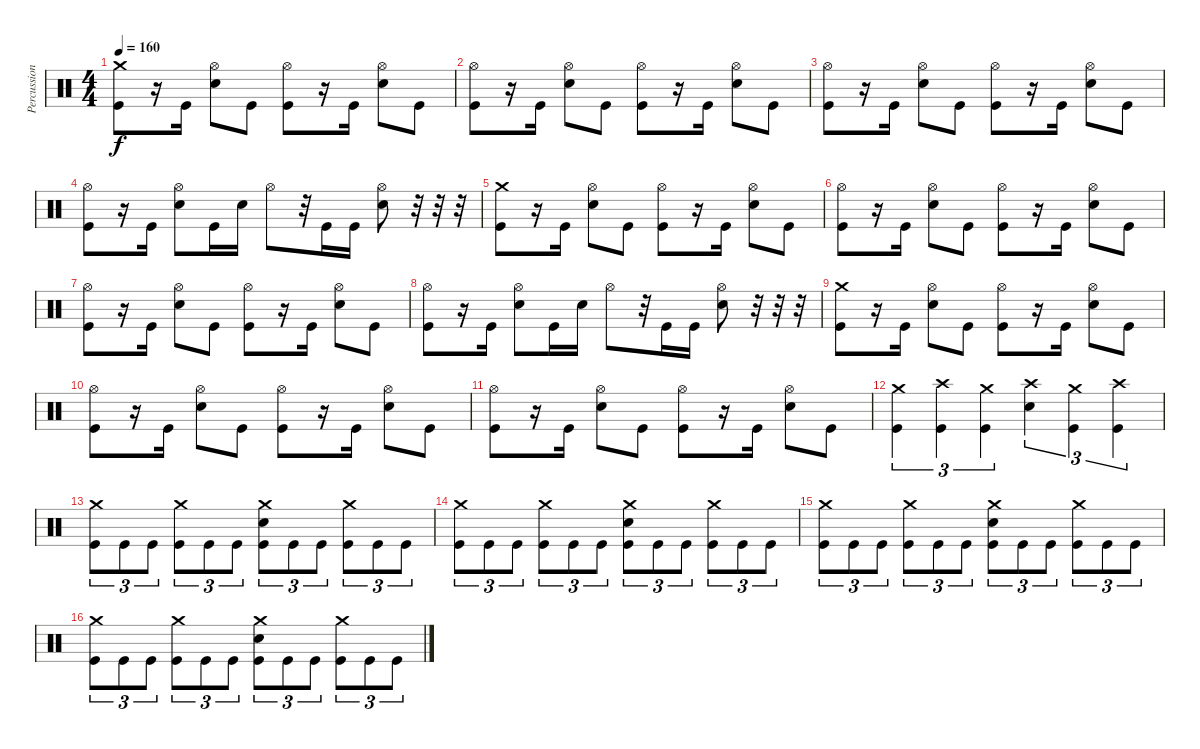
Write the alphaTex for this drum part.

\track ("Percussion" "Percussion") {instrument percussion}
\staff {score}
\articulation defaults
\ts (4 4)
\tempo 160
\clef neutral
\ks c
("Crash medium (hit)" "Kick (hit)").8{dy f} r.16 "Kick (hit)".16 ("Hi-Hat (open)" "Electric Snare (hit)").8 "Kick (hit)".8 ("Hi-Hat (open)" "Kick (hit)").8 r.16 "Kick (hit)".16 ("Hi-Hat (open)" "Electric Snare (hit)").8 "Kick (hit)".8 |
("Hi-Hat (open)" "Kick (hit)").8 r.16 "Kick (hit)".16 ("Hi-Hat (open)" "Electric Snare (hit)").8 "Kick (hit)".8 ("Hi-Hat (open)" "Kick (hit)").8 r.16 "Kick (hit)".16 ("Hi-Hat (open)" "Electric Snare (hit)").8 "Kick (hit)".8 |
("Hi-Hat (open)" "Kick (hit)").8 r.16 "Kick (hit)".16 ("Hi-Hat (open)" "Electric Snare (hit)").8 "Kick (hit)".8 ("Hi-Hat (open)" "Kick (hit)").8 r.16 "Kick (hit)".16 ("Hi-Hat (open)" "Electric Snare (hit)").8 "Kick (hit)".8 |
("Hi-Hat (open)" "Kick (hit)").8 r.16 "Kick (hit)".16 ("Hi-Hat (open)" "Electric Snare (hit)").8 "Kick (hit)".16 "Electric Snare (hit)".16 "Hi-Hat (open)".8 r.32 "Kick (hit)".16 "Kick (hit)".16 ("Hi-Hat (open)" "Electric Snare (hit)").8 r.32 r.32 r.32 |
("Crash medium (hit)" "Kick (hit)").8 r.16 "Kick (hit)".16 ("Hi-Hat (open)" "Electric Snare (hit)").8 "Kick (hit)".8 ("Hi-Hat (open)" "Kick (hit)").8 r.16 "Kick (hit)".16 ("Hi-Hat (open)" "Electric Snare (hit)").8 "Kick (hit)".8 |
("Hi-Hat (open)" "Kick (hit)").8 r.16 "Kick (hit)".16 ("Hi-Hat (open)" "Electric Snare (hit)").8 "Kick (hit)".8 ("Hi-Hat (open)" "Kick (hit)").8 r.16 "Kick (hit)".16 ("Hi-Hat (open)" "Electric Snare (hit)").8 "Kick (hit)".8 |
("Hi-Hat (open)" "Kick (hit)").8 r.16 "Kick (hit)".16 ("Hi-Hat (open)" "Electric Snare (hit)").8 "Kick (hit)".8 ("Hi-Hat (open)" "Kick (hit)").8 r.16 "Kick (hit)".16 ("Hi-Hat (open)" "Electric Snare (hit)").8 "Kick (hit)".8 |
("Hi-Hat (open)" "Kick (hit)").8 r.16 "Kick (hit)".16 ("Hi-Hat (open)" "Electric Snare (hit)").8 "Kick (hit)".16 "Electric Snare (hit)".16 "Hi-Hat (open)".8 r.32 "Kick (hit)".16 "Kick (hit)".16 ("Hi-Hat (open)" "Electric Snare (hit)").8 r.32 r.32 r.32 |
("Crash medium (hit)" "Kick (hit)").8 r.16 "Kick (hit)".16 ("Hi-Hat (open)" "Electric Snare (hit)").8 "Kick (hit)".8 ("Hi-Hat (open)" "Kick (hit)").8 r.16 "Kick (hit)".16 ("Hi-Hat (open)" "Electric Snare (hit)").8 "Kick (hit)".8 |
("Hi-Hat (open)" "Kick (hit)").8 r.16 "Kick (hit)".16 ("Hi-Hat (open)" "Electric Snare (hit)").8 "Kick (hit)".8 ("Hi-Hat (open)" "Kick (hit)").8 r.16 "Kick (hit)".16 ("Hi-Hat (open)" "Electric Snare (hit)").8 "Kick (hit)".8 |
("Hi-Hat (open)" "Kick (hit)").8 r.16 "Kick (hit)".16 ("Hi-Hat (open)" "Electric Snare (hit)").8 "Kick (hit)".8 ("Hi-Hat (open)" "Kick (hit)").8 r.16 "Kick (hit)".16 ("Hi-Hat (open)" "Electric Snare (hit)").8 "Kick (hit)".8 |
("Crash medium (hit)" "Kick (hit)").4{tu (3 2)} ("Crash high (hit)" "Kick (hit)").4{tu (3 2)} ("Crash medium (hit)" "Kick (hit)").4{tu (3 2)} ("Crash high (hit)" "Electric Snare (hit)").4{tu (3 2)} ("Crash medium (hit)" "Kick (hit)").4{tu (3 2)} ("Crash high (hit)" "Kick (hit)").4{tu (3 2)} |
("Crash medium (hit)" "Kick (hit)").8{tu (3 2)} "Kick (hit)".8{tu (3 2)} "Kick (hit)".8{tu (3 2)} ("Crash medium (hit)" "Kick (hit)").8{tu (3 2)} "Kick (hit)".8{tu (3 2)} "Kick (hit)".8{tu (3 2)} ("Crash medium (hit)" "Electric Snare (hit)" "Kick (hit)").8{tu (3 2)} "Kick (hit)".8{tu (3 2)} "Kick (hit)".8{tu (3 2)} ("Crash medium (hit)" "Kick (hit)").8{tu (3 2)} "Kick (hit)".8{tu (3 2)} "Kick (hit)".8{tu (3 2)} |
("Crash medium (hit)" "Kick (hit)").8{tu (3 2)} "Kick (hit)".8{tu (3 2)} "Kick (hit)".8{tu (3 2)} ("Crash medium (hit)" "Kick (hit)").8{tu (3 2)} "Kick (hit)".8{tu (3 2)} "Kick (hit)".8{tu (3 2)} ("Crash medium (hit)" "Electric Snare (hit)" "Kick (hit)").8{tu (3 2)} "Kick (hit)".8{tu (3 2)} "Kick (hit)".8{tu (3 2)} ("Crash medium (hit)" "Kick (hit)").8{tu (3 2)} "Kick (hit)".8{tu (3 2)} "Kick (hit)".8{tu (3 2)} |
("Crash medium (hit)" "Kick (hit)").8{tu (3 2)} "Kick (hit)".8{tu (3 2)} "Kick (hit)".8{tu (3 2)} ("Crash medium (hit)" "Kick (hit)").8{tu (3 2)} "Kick (hit)".8{tu (3 2)} "Kick (hit)".8{tu (3 2)} ("Crash medium (hit)" "Electric Snare (hit)" "Kick (hit)").8{tu (3 2)} "Kick (hit)".8{tu (3 2)} "Kick (hit)".8{tu (3 2)} ("Crash medium (hit)" "Kick (hit)").8{tu (3 2)} "Kick (hit)".8{tu (3 2)} "Kick (hit)".8{tu (3 2)} |
("Crash medium (hit)" "Kick (hit)").8{tu (3 2)} "Kick (hit)".8{tu (3 2)} "Kick (hit)".8{tu (3 2)} ("Crash medium (hit)" "Kick (hit)").8{tu (3 2)} "Kick (hit)".8{tu (3 2)} "Kick (hit)".8{tu (3 2)} ("Crash medium (hit)" "Electric Snare (hit)" "Kick (hit)").8{tu (3 2)} "Kick (hit)".8{tu (3 2)} "Kick (hit)".8{tu (3 2)} ("Crash medium (hit)" "Kick (hit)").8{tu (3 2)} "Kick (hit)".8{tu (3 2)} "Kick (hit)".8{tu (3 2)}
